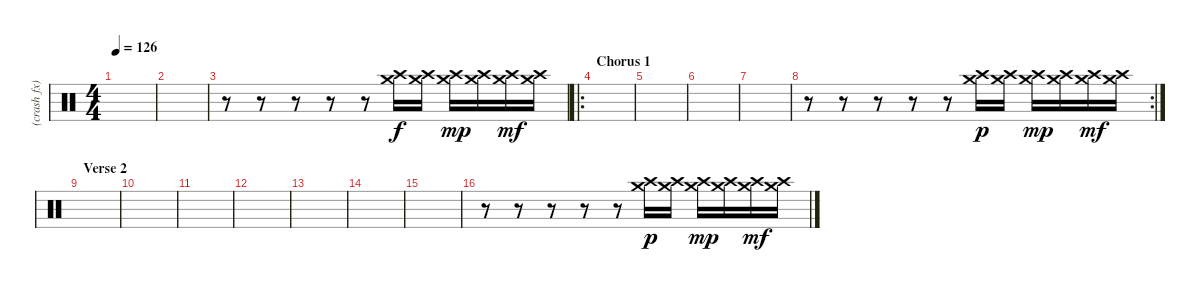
\track ("(crash fx)" "(crash fx)") {instrument percussion}
\staff {score}
\articulation defaults
\ts (4 4)
\tempo 126
\clef neutral
\ks c
|
|
r.8 r.8 r.8 r.8 r.8 ("Crash medium (hit)" "Crash high (hit)").16 ("Crash medium (hit)" "Crash high (hit)").16 ("Crash medium (hit)" "Crash high (hit)").16{dy mp} ("Crash medium (hit)" "Crash high (hit)").16 ("Crash medium (hit)" "Crash high (hit)").16{dy mf} ("Crash medium (hit)" "Crash high (hit)").16 |
\ro
\section ("" "Chorus 1")
|
|
|
|
\rc 2
r.8 r.8 r.8 r.8 r.8 ("Crash medium (hit)" "Crash high (hit)").16{dy p} ("Crash medium (hit)" "Crash high (hit)").16 ("Crash medium (hit)" "Crash high (hit)").16{dy mp} ("Crash medium (hit)" "Crash high (hit)").16 ("Crash medium (hit)" "Crash high (hit)").16{dy mf} ("Crash medium (hit)" "Crash high (hit)").16 |
\section ("" "Verse 2")
|
|
|
|
|
|
|
r.8 r.8 r.8 r.8 r.8 ("Crash medium (hit)" "Crash high (hit)").16{dy p} ("Crash medium (hit)" "Crash high (hit)").16 ("Crash medium (hit)" "Crash high (hit)").16{dy mp} ("Crash medium (hit)" "Crash high (hit)").16 ("Crash medium (hit)" "Crash high (hit)").16{dy mf} ("Crash medium (hit)" "Crash high (hit)").16
